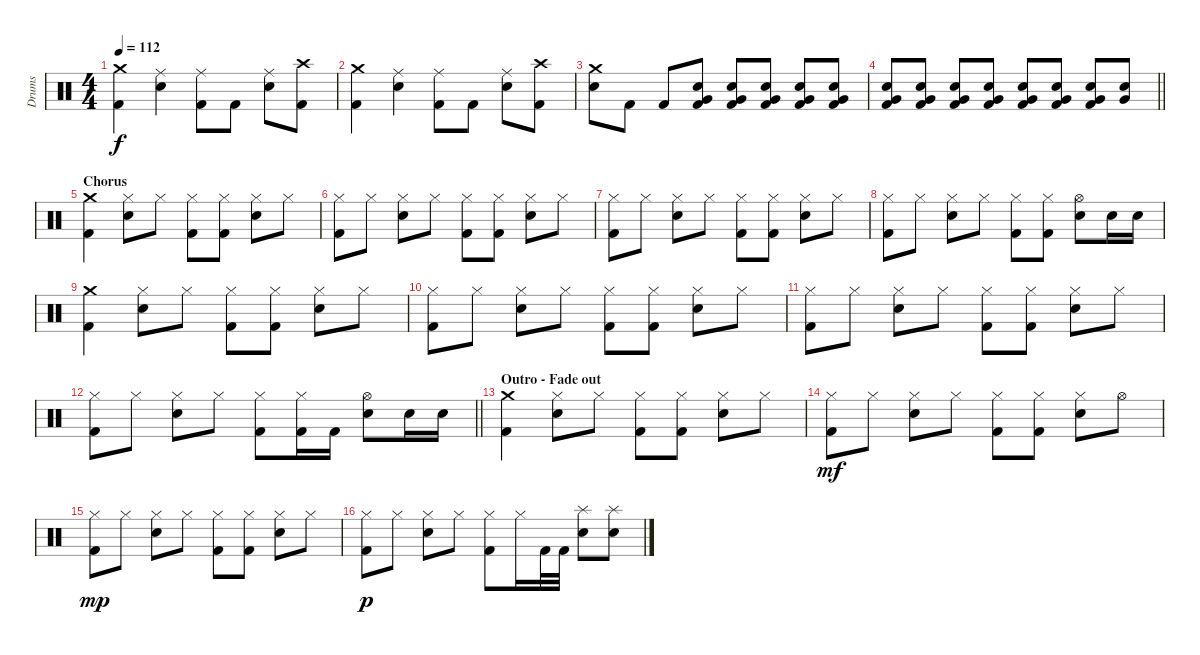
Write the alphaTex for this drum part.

\track ("Drums" "Drums") {instrument percussion}
\staff {score}
\articulation defaults
\ts (4 4)
\tempo 112
\clef neutral
\ks c
("Crash medium (hit)" "Kick (hit) 2").4{dy f} ("Ride (middle)" "Snare (hit) 2").4 ("Ride (middle)" "Kick (hit) 2").8 "Kick (hit) 2".8 ("Ride (middle)" "Snare (hit) 2").8 ("Crash high (hit)" "Kick (hit) 2").8 |
("Crash medium (hit)" "Kick (hit) 2").4 ("Ride (middle)" "Snare (hit) 2").4 ("Ride (middle)" "Kick (hit) 2").8 "Kick (hit) 2".8 ("Ride (middle)" "Snare (hit) 2").8 ("Crash high (hit)" "Kick (hit) 2").8 |
("Crash medium (hit)" "Snare (hit) 2").8 "Kick (hit) 2".8 "Kick (hit) 2".8 ("Very Low Tom (hit)" "Snare (hit) 2" "Kick (hit) 2").8 ("Very Low Tom (hit)" "Snare (hit) 2" "Kick (hit) 2").8 ("Very Low Tom (hit)" "Snare (hit) 2" "Kick (hit) 2").8 ("Very Low Tom (hit)" "Snare (hit) 2" "Kick (hit) 2").8 ("Very Low Tom (hit)" "Snare (hit) 2" "Kick (hit) 2").8 |
\barLineRight lightlight
("Very Low Tom (hit)" "Snare (hit) 2" "Kick (hit) 2").8 ("Very Low Tom (hit)" "Snare (hit) 2" "Kick (hit) 2").8 ("Very Low Tom (hit)" "Snare (hit) 2" "Kick (hit) 2").8 ("Very Low Tom (hit)" "Snare (hit) 2" "Kick (hit) 2").8 ("Very Low Tom (hit)" "Snare (hit) 2" "Kick (hit) 2").8 ("Very Low Tom (hit)" "Snare (hit) 2" "Kick (hit) 2").8 ("Very Low Tom (hit)" "Snare (hit) 2" "Kick (hit) 2").8 ("Very Low Tom (hit)" "Snare (hit) 2").8 |
\section ("" "Chorus")
("Crash medium (hit)" "Kick (hit) 2").4 ("Hi-Hat (closed)" "Snare (hit) 2").8 "Hi-Hat (closed)".8 ("Hi-Hat (closed)" "Kick (hit) 2").8 ("Hi-Hat (closed)" "Kick (hit) 2").8 ("Hi-Hat (closed)" "Snare (hit) 2").8 "Hi-Hat (closed)".8 |
("Hi-Hat (closed)" "Kick (hit) 2").8 "Hi-Hat (closed)".8 ("Hi-Hat (closed)" "Snare (hit) 2").8 "Hi-Hat (closed)".8 ("Hi-Hat (closed)" "Kick (hit) 2").8 ("Hi-Hat (closed)" "Kick (hit) 2").8 ("Hi-Hat (closed)" "Snare (hit) 2").8 "Hi-Hat (closed)".8 |
("Hi-Hat (closed)" "Kick (hit) 2").8 "Hi-Hat (closed)".8 ("Hi-Hat (closed)" "Snare (hit) 2").8 "Hi-Hat (closed)".8 ("Hi-Hat (closed)" "Kick (hit) 2").8 ("Hi-Hat (closed)" "Kick (hit) 2").8 ("Hi-Hat (closed)" "Snare (hit) 2").8 "Hi-Hat (closed)".8 |
("Hi-Hat (closed)" "Kick (hit) 2").8 "Hi-Hat (closed)".8 ("Hi-Hat (closed)" "Snare (hit) 2").8 "Hi-Hat (closed)".8 ("Hi-Hat (closed)" "Kick (hit) 2").8 ("Hi-Hat (closed)" "Kick (hit) 2").8 ("Hi-Hat (open)" "Snare (hit) 2").8 "Snare (hit) 2".16 "Snare (hit) 2".16 |
("Crash medium (hit)" "Kick (hit) 2").4 ("Hi-Hat (closed)" "Snare (hit) 2").8 "Hi-Hat (closed)".8 ("Hi-Hat (closed)" "Kick (hit) 2").8 ("Hi-Hat (closed)" "Kick (hit) 2").8 ("Hi-Hat (closed)" "Snare (hit) 2").8 "Hi-Hat (closed)".8 |
("Hi-Hat (closed)" "Kick (hit) 2").8 "Hi-Hat (closed)".8 ("Hi-Hat (closed)" "Snare (hit) 2").8 "Hi-Hat (closed)".8 ("Hi-Hat (closed)" "Kick (hit) 2").8 ("Hi-Hat (closed)" "Kick (hit) 2").8 ("Hi-Hat (closed)" "Snare (hit) 2").8 "Hi-Hat (closed)".8 |
("Hi-Hat (closed)" "Kick (hit) 2").8 "Hi-Hat (closed)".8 ("Hi-Hat (closed)" "Snare (hit) 2").8 "Hi-Hat (closed)".8 ("Hi-Hat (closed)" "Kick (hit) 2").8 ("Hi-Hat (closed)" "Kick (hit) 2").8 ("Hi-Hat (closed)" "Snare (hit) 2").8 "Hi-Hat (closed)".8 |
\barLineRight lightlight
("Hi-Hat (closed)" "Kick (hit) 2").8 "Hi-Hat (closed)".8 ("Hi-Hat (closed)" "Snare (hit) 2").8 "Hi-Hat (closed)".8 ("Hi-Hat (closed)" "Kick (hit) 2").8 ("Hi-Hat (closed)" "Kick (hit) 2").16 "Kick (hit) 2".16 ("Hi-Hat (open)" "Snare (hit) 2").8 "Snare (hit) 2".16 "Snare (hit) 2".16 |
\section ("" "Outro - Fade out")
("Crash medium (hit)" "Kick (hit) 2").4 ("Hi-Hat (closed)" "Snare (hit) 2").8 "Hi-Hat (closed)".8 ("Hi-Hat (closed)" "Kick (hit) 2").8 ("Hi-Hat (closed)" "Kick (hit) 2").8 ("Hi-Hat (closed)" "Snare (hit) 2").8 "Hi-Hat (closed)".8 |
("Hi-Hat (closed)" "Kick (hit) 2").8{dy mf} "Hi-Hat (closed)".8 ("Hi-Hat (closed)" "Snare (hit) 2").8 "Hi-Hat (closed)".8 ("Hi-Hat (closed)" "Kick (hit) 2").8 ("Hi-Hat (closed)" "Kick (hit) 2").8 ("Hi-Hat (closed)" "Snare (hit) 2").8 "Hi-Hat (open)".8 |
("Hi-Hat (closed)" "Kick (hit) 2").8{dy mp} "Hi-Hat (closed)".8 ("Hi-Hat (closed)" "Snare (hit) 2").8 "Hi-Hat (closed)".8 ("Hi-Hat (closed)" "Kick (hit) 2").8 ("Hi-Hat (closed)" "Kick (hit) 2").8 ("Hi-Hat (closed)" "Snare (hit) 2").8 "Hi-Hat (closed)".8 |
("Hi-Hat (closed)" "Kick (hit) 2").8{dy p} "Hi-Hat (closed)".8 ("Hi-Hat (closed)" "Snare (hit) 2").8 "Hi-Hat (closed)".8 ("Hi-Hat (closed)" "Kick (hit) 2").8 "Hi-Hat (closed)".16 "Kick (hit) 2".32 "Kick (hit) 2".32 ("Splash (hit)" "Snare (hit) 2").8 ("Splash (hit)" "Snare (hit) 2").8
